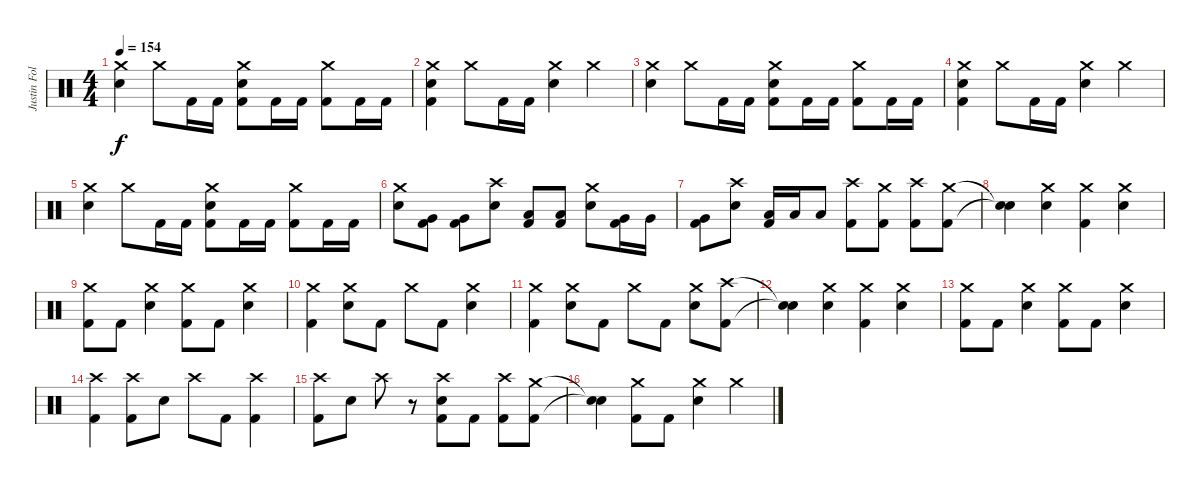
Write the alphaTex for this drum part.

\track ("Justin Foley" "Justin Fol") {instrument percussion}
\staff {score}
\articulation defaults
\ts (4 4)
\tempo 154
\clef neutral
\ks c
("Crash medium (hit)" "Electric Snare (hit)").4{dy f} "Crash medium (hit)".8 "Kick (hit) 2".16 "Kick (hit) 2".16 ("Crash medium (hit)" "Electric Snare (hit)" "Kick (hit) 2").8 "Kick (hit) 2".16 "Kick (hit) 2".16 ("Crash medium (hit)" "Kick (hit) 2").8 "Kick (hit) 2".16 "Kick (hit) 2".16 |
("Crash medium (hit)" "Electric Snare (hit)" "Kick (hit) 2").4 "Crash medium (hit)".8 "Kick (hit) 2".16 "Kick (hit) 2".16 ("Crash medium (hit)" "Electric Snare (hit)").4 "Crash medium (hit)".4 |
("Crash medium (hit)" "Electric Snare (hit)").4 "Crash medium (hit)".8 "Kick (hit) 2".16 "Kick (hit) 2".16 ("Crash medium (hit)" "Electric Snare (hit)" "Kick (hit) 2").8 "Kick (hit) 2".16 "Kick (hit) 2".16 ("Crash medium (hit)" "Kick (hit) 2").8 "Kick (hit) 2".16 "Kick (hit) 2".16 |
("Crash medium (hit)" "Electric Snare (hit)" "Kick (hit) 2").4 "Crash medium (hit)".8 "Kick (hit) 2".16 "Kick (hit) 2".16 ("Crash medium (hit)" "Electric Snare (hit)").4 "Crash medium (hit)".4 |
("Crash medium (hit)" "Electric Snare (hit)").4 "Crash medium (hit)".8 "Kick (hit) 2".16 "Kick (hit) 2".16 ("Crash medium (hit)" "Electric Snare (hit)" "Kick (hit) 2").8 "Kick (hit) 2".16 "Kick (hit) 2".16 ("Crash medium (hit)" "Kick (hit) 2").8 "Kick (hit) 2".16 "Kick (hit) 2".16 |
("Crash medium (hit)" "Electric Snare (hit)").8 ("Very Low Tom (hit)" "Kick (hit) 2").8 ("Very Low Tom (hit)" "Kick (hit) 2").8 ("Crash high (hit)" "Electric Snare (hit)").8 ("Low Floor Tom (hit)" "Kick (hit) 2").8 ("Low Floor Tom (hit)" "Kick (hit) 2").8 ("Crash medium (hit)" "Electric Snare (hit)").8 ("Very Low Tom (hit)" "Kick (hit) 2").16 "Very Low Tom (hit)".16 |
("Very Low Tom (hit)" "Kick (hit) 2").8 ("Crash high (hit)" "Electric Snare (hit)").8 ("Low Floor Tom (hit)" "Kick (hit) 2").16 "Low Floor Tom (hit)".16 "Low Floor Tom (hit)".8 ("Crash high (hit)" "Kick (hit) 2").8 ("Crash medium (hit)" "Kick (hit) 2").8 ("Crash high (hit)" "Kick (hit) 2").8 ("Crash medium (hit)" "Kick (hit) 2").8 |
("Snare (hit)"{t} "Snare (hit)"{t}).4 ("Crash medium (hit)" "Electric Snare (hit)").4 ("Crash medium (hit)" "Kick (hit) 2").4 ("Crash medium (hit)" "Electric Snare (hit)").4 |
("Crash medium (hit)" "Kick (hit) 2").8 "Kick (hit) 2".8 ("Crash medium (hit)" "Electric Snare (hit)").4 ("Crash medium (hit)" "Kick (hit) 2").8 "Kick (hit) 2".8 ("Crash medium (hit)" "Electric Snare (hit)").4 |
("Crash medium (hit)" "Kick (hit) 2").4 ("Crash medium (hit)" "Electric Snare (hit)").8 "Kick (hit) 2".8 "Crash medium (hit)".8 "Kick (hit) 2".8 ("Crash medium (hit)" "Electric Snare (hit)").4 |
("Crash medium (hit)" "Kick (hit) 2").4 ("Crash medium (hit)" "Electric Snare (hit)").8 "Kick (hit) 2".8 "Crash medium (hit)".8 "Kick (hit) 2".8 ("Crash medium (hit)" "Electric Snare (hit)").8 ("Crash high (hit)" "Kick (hit) 2").8 |
("Snare (hit)"{t} "Snare (hit)"{t}).4 ("Crash medium (hit)" "Electric Snare (hit)").4 ("Crash medium (hit)" "Kick (hit) 2").4 ("Crash medium (hit)" "Electric Snare (hit)").4 |
("Crash medium (hit)" "Kick (hit) 2").8 "Kick (hit) 2".8 ("Crash medium (hit)" "Electric Snare (hit)").4 ("Crash medium (hit)" "Kick (hit) 2").8 "Kick (hit) 2".8 ("Crash medium (hit)" "Electric Snare (hit)").4 |
("Crash high (hit)" "Kick (hit) 2").4 ("Crash high (hit)" "Kick (hit) 2").8 "Electric Snare (hit)".8 "Crash high (hit)".8 "Kick (hit) 2".8 ("Crash high (hit)" "Kick (hit) 2").4 |
("Crash high (hit)" "Kick (hit) 2").8 "Electric Snare (hit)".8 "Crash high (hit)".8 r.8 ("Crash high (hit)" "Electric Snare (hit)" "Kick (hit) 2").8 "Kick (hit) 2".8 ("Crash high (hit)" "Kick (hit) 2").8 ("Crash medium (hit)" "Kick (hit) 2").8 |
("Snare (hit)"{t} "Snare (hit)"{t}).4 ("Crash medium (hit)" "Kick (hit) 2").8 "Kick (hit) 2".8 ("Crash medium (hit)" "Electric Snare (hit)").4 "Crash medium (hit)".4
